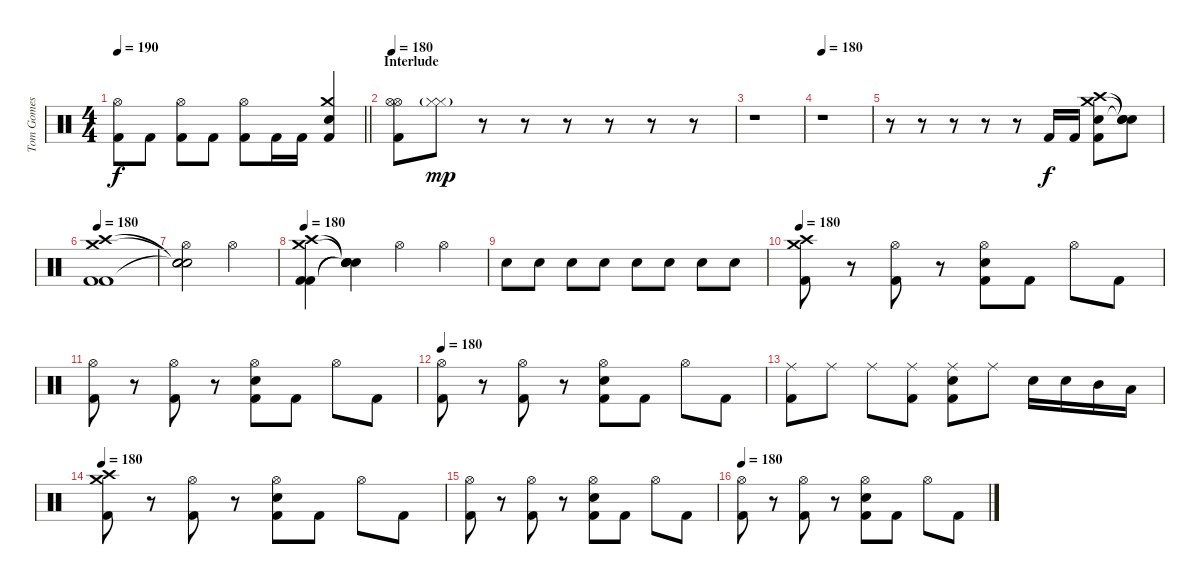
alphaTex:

\track ("Tom Gomes" "Tom Gomes") {instrument percussion}
\staff {score}
\articulation defaults
\ts (4 4)
\tempo 190
\clef neutral
\barLineRight lightlight
\ks c
("Hi-Hat (open)" "Kick (hit) 2").8{dy f} "Kick (hit) 2".8 ("Hi-Hat (open)" "Kick (hit) 2").8 "Kick (hit) 2".8 ("Hi-Hat (open)" "Kick (hit) 2").8 "Kick (hit) 2".16 "Kick (hit) 2".16 ("Crash medium (hit)" "Snare (hit) 2" "Kick (hit) 2").4 |
\section ("" "Interlude")
\tempo 180
("Hi-Hat (open)" "Hi-Hat (open)" "Kick (hit) 2").8 ("Hi-Hat (closed)"{g} "Hi-Hat (closed)"{g}).8{dy mp} r.8 r.8 r.8 r.8 r.8 r.8 |
r.1 |
\tempo 180
r.1 |
r.8 r.8 r.8 r.8 r.8 "Kick (hit) 2".16{dy f} "Kick (hit) 2".16 ("Crash medium (hit)" "Crash high (hit)" "Snare (hit) 2" "Kick (hit) 2").8 ("Snare (hit)"{t} "Snare (hit)"{t} "Snare (hit)"{t}).8 |
\tempo 180
("Crash high (hit)" "Crash medium (hit)" "Kick (hit) 2" "Kick (hit) 2").1 |
("Snare (hit)"{t} "Snare (hit)"{t} "Snare (hit)"{t} "Hi-Hat (open)").2 "Hi-Hat (open)".2 |
\tempo 180
("Crash high (hit)" "Crash medium (hit)" "Kick (hit) 2" "Kick (hit) 2").4 ("Snare (hit)"{t} "Snare (hit)"{t} "Snare (hit)"{t} "Snare (hit)"{t}).4 "Hi-Hat (open)".4 "Hi-Hat (open)".4 |
"Snare (hit) 2".8 "Snare (hit) 2".8 "Snare (hit) 2".8 "Snare (hit) 2".8 "Snare (hit) 2".8 "Snare (hit) 2".8 "Snare (hit) 2".8 "Snare (hit) 2".8 |
\tempo 180
("Crash high (hit)" "Crash medium (hit)" "Kick (hit) 2").8 r.8 ("Hi-Hat (open)" "Kick (hit) 2").8 r.8 ("Hi-Hat (open)" "Snare (hit) 2" "Kick (hit) 2").8 "Kick (hit) 2".8 "Hi-Hat (open)".8 "Kick (hit) 2".8 |
("Hi-Hat (open)" "Kick (hit) 2").8 r.8 ("Hi-Hat (open)" "Kick (hit) 2").8 r.8 ("Hi-Hat (open)" "Snare (hit) 2" "Kick (hit) 2").8 "Kick (hit) 2".8 "Hi-Hat (open)".8 "Kick (hit) 2".8 |
\tempo 180
("Hi-Hat (open)" "Kick (hit) 2").8 r.8 ("Hi-Hat (open)" "Kick (hit) 2").8 r.8 ("Hi-Hat (open)" "Snare (hit) 2" "Kick (hit) 2").8 "Kick (hit) 2".8 "Hi-Hat (open)".8 "Kick (hit) 2".8 |
("Ride (middle)" "Kick (hit) 2").8 "Ride (middle)".8 "Ride (middle)".8 ("Ride (middle)" "Kick (hit) 2").8 ("Ride (middle)" "Snare (hit) 2" "Kick (hit) 2").8 "Ride (middle)".8 "Snare (hit) 2".16 "Snare (hit) 2".16 "Mid Tom (hit)".16 "Low Tom (hit)".16 |
\tempo 180
("Crash high (hit)" "Crash medium (hit)" "Kick (hit) 2").8 r.8 ("Hi-Hat (open)" "Kick (hit) 2").8 r.8 ("Hi-Hat (open)" "Snare (hit) 2" "Kick (hit) 2").8 "Kick (hit) 2".8 "Hi-Hat (open)".8 "Kick (hit) 2".8 |
("Hi-Hat (open)" "Kick (hit) 2").8 r.8 ("Hi-Hat (open)" "Kick (hit) 2").8 r.8 ("Hi-Hat (open)" "Snare (hit) 2" "Kick (hit) 2").8 "Kick (hit) 2".8 "Hi-Hat (open)".8 "Kick (hit) 2".8 |
\tempo 180
("Hi-Hat (open)" "Kick (hit) 2").8 r.8 ("Hi-Hat (open)" "Kick (hit) 2").8 r.8 ("Hi-Hat (open)" "Snare (hit) 2" "Kick (hit) 2").8 "Kick (hit) 2".8 "Hi-Hat (open)".8 "Kick (hit) 2".8
